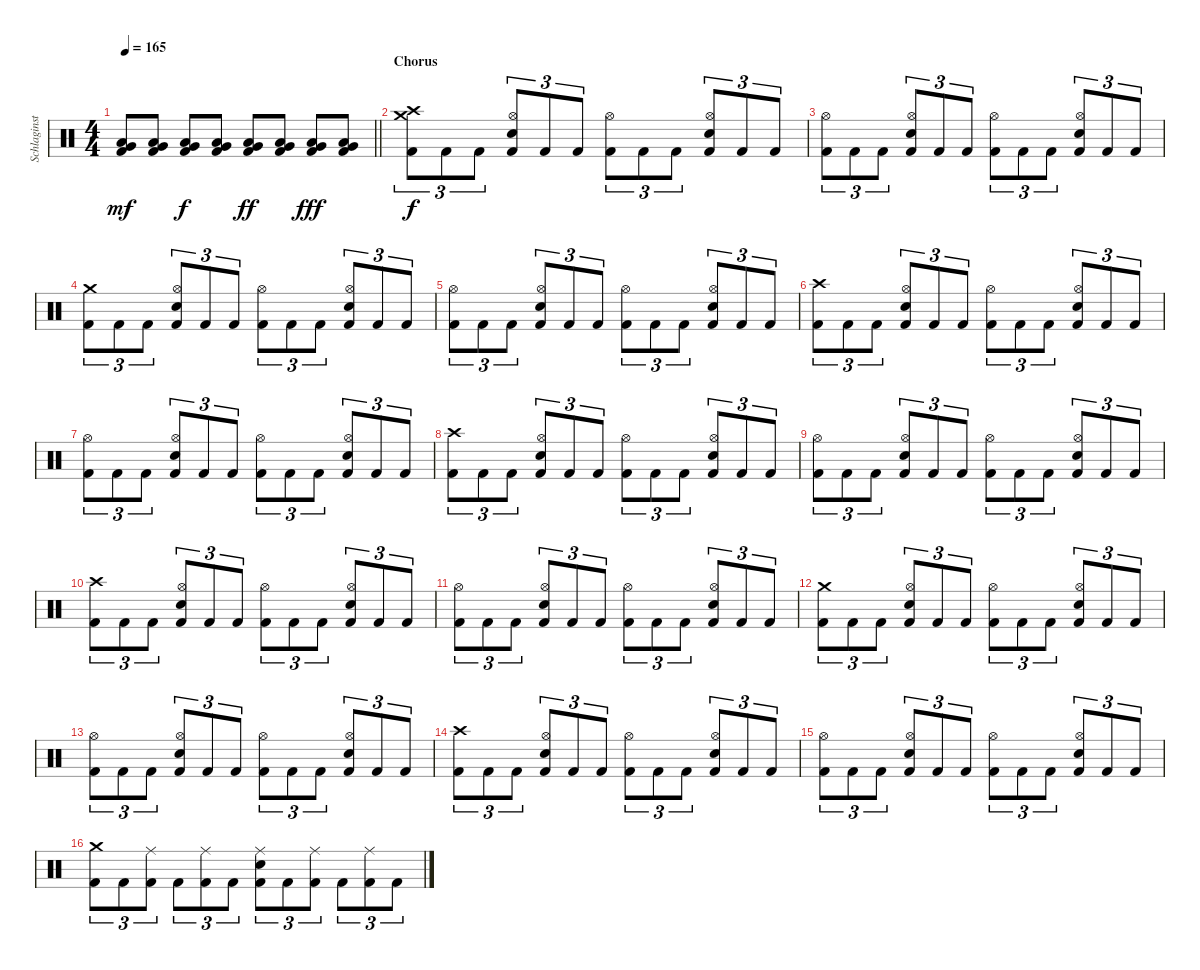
\track ("Schlaginstrumente - Auswahl" "Schlaginst") {instrument percussion}
\staff {score}
\articulation defaults
\ts (4 4)
\tempo 165
\clef neutral
\barLineRight lightlight
\ks c
("Low Floor Tom (hit)" "Very Low Tom (hit)" "Kick (hit) 2").8{dy mf} ("Low Floor Tom (hit)" "Very Low Tom (hit)" "Kick (hit) 2").8 ("Low Floor Tom (hit)" "Very Low Tom (hit)" "Kick (hit) 2").8{dy f} ("Low Floor Tom (hit)" "Very Low Tom (hit)" "Kick (hit) 2").8 ("Low Floor Tom (hit)" "Very Low Tom (hit)" "Kick (hit) 2").8{dy ff} ("Low Floor Tom (hit)" "Very Low Tom (hit)" "Kick (hit) 2").8 ("Low Floor Tom (hit)" "Very Low Tom (hit)" "Kick (hit) 2").8{dy fff} ("Low Floor Tom (hit)" "Very Low Tom (hit)" "Kick (hit) 2").8 |
\section ("" "Chorus")
("Crash high (hit)" "Crash medium (hit)" "Kick (hit) 2").8{tu (3 2) dy f} "Kick (hit) 2".8{tu (3 2)} "Kick (hit) 2".8{tu (3 2)} ("Hi-Hat (open)" "Electric Snare (hit)" "Kick (hit) 2").8{tu (3 2)} "Kick (hit) 2".8{tu (3 2)} "Kick (hit) 2".8{tu (3 2)} ("Hi-Hat (open)" "Kick (hit) 2").8{tu (3 2)} "Kick (hit) 2".8{tu (3 2)} "Kick (hit) 2".8{tu (3 2)} ("Hi-Hat (open)" "Electric Snare (hit)" "Kick (hit) 2").8{tu (3 2)} "Kick (hit) 2".8{tu (3 2)} "Kick (hit) 2".8{tu (3 2)} |
("Hi-Hat (open)" "Kick (hit) 2").8{tu (3 2)} "Kick (hit) 2".8{tu (3 2)} "Kick (hit) 2".8{tu (3 2)} ("Hi-Hat (open)" "Electric Snare (hit)" "Kick (hit) 2").8{tu (3 2)} "Kick (hit) 2".8{tu (3 2)} "Kick (hit) 2".8{tu (3 2)} ("Hi-Hat (open)" "Kick (hit) 2").8{tu (3 2)} "Kick (hit) 2".8{tu (3 2)} "Kick (hit) 2".8{tu (3 2)} ("Hi-Hat (open)" "Electric Snare (hit)" "Kick (hit) 2").8{tu (3 2)} "Kick (hit) 2".8{tu (3 2)} "Kick (hit) 2".8{tu (3 2)} |
("Crash medium (hit)" "Kick (hit) 2").8{tu (3 2)} "Kick (hit) 2".8{tu (3 2)} "Kick (hit) 2".8{tu (3 2)} ("Hi-Hat (open)" "Electric Snare (hit)" "Kick (hit) 2").8{tu (3 2)} "Kick (hit) 2".8{tu (3 2)} "Kick (hit) 2".8{tu (3 2)} ("Hi-Hat (open)" "Kick (hit) 2").8{tu (3 2)} "Kick (hit) 2".8{tu (3 2)} "Kick (hit) 2".8{tu (3 2)} ("Hi-Hat (open)" "Electric Snare (hit)" "Kick (hit) 2").8{tu (3 2)} "Kick (hit) 2".8{tu (3 2)} "Kick (hit) 2".8{tu (3 2)} |
("Hi-Hat (open)" "Kick (hit) 2").8{tu (3 2)} "Kick (hit) 2".8{tu (3 2)} "Kick (hit) 2".8{tu (3 2)} ("Hi-Hat (open)" "Electric Snare (hit)" "Kick (hit) 2").8{tu (3 2)} "Kick (hit) 2".8{tu (3 2)} "Kick (hit) 2".8{tu (3 2)} ("Hi-Hat (open)" "Kick (hit) 2").8{tu (3 2)} "Kick (hit) 2".8{tu (3 2)} "Kick (hit) 2".8{tu (3 2)} ("Hi-Hat (open)" "Electric Snare (hit)" "Kick (hit) 2").8{tu (3 2)} "Kick (hit) 2".8{tu (3 2)} "Kick (hit) 2".8{tu (3 2)} |
("Crash high (hit)" "Kick (hit) 2").8{tu (3 2)} "Kick (hit) 2".8{tu (3 2)} "Kick (hit) 2".8{tu (3 2)} ("Hi-Hat (open)" "Electric Snare (hit)" "Kick (hit) 2").8{tu (3 2)} "Kick (hit) 2".8{tu (3 2)} "Kick (hit) 2".8{tu (3 2)} ("Hi-Hat (open)" "Kick (hit) 2").8{tu (3 2)} "Kick (hit) 2".8{tu (3 2)} "Kick (hit) 2".8{tu (3 2)} ("Hi-Hat (open)" "Electric Snare (hit)" "Kick (hit) 2").8{tu (3 2)} "Kick (hit) 2".8{tu (3 2)} "Kick (hit) 2".8{tu (3 2)} |
("Hi-Hat (open)" "Kick (hit) 2").8{tu (3 2)} "Kick (hit) 2".8{tu (3 2)} "Kick (hit) 2".8{tu (3 2)} ("Hi-Hat (open)" "Electric Snare (hit)" "Kick (hit) 2").8{tu (3 2)} "Kick (hit) 2".8{tu (3 2)} "Kick (hit) 2".8{tu (3 2)} ("Hi-Hat (open)" "Kick (hit) 2").8{tu (3 2)} "Kick (hit) 2".8{tu (3 2)} "Kick (hit) 2".8{tu (3 2)} ("Hi-Hat (open)" "Electric Snare (hit)" "Kick (hit) 2").8{tu (3 2)} "Kick (hit) 2".8{tu (3 2)} "Kick (hit) 2".8{tu (3 2)} |
("Crash high (hit)" "Kick (hit) 2").8{tu (3 2)} "Kick (hit) 2".8{tu (3 2)} "Kick (hit) 2".8{tu (3 2)} ("Hi-Hat (open)" "Electric Snare (hit)" "Kick (hit) 2").8{tu (3 2)} "Kick (hit) 2".8{tu (3 2)} "Kick (hit) 2".8{tu (3 2)} ("Hi-Hat (open)" "Kick (hit) 2").8{tu (3 2)} "Kick (hit) 2".8{tu (3 2)} "Kick (hit) 2".8{tu (3 2)} ("Hi-Hat (open)" "Electric Snare (hit)" "Kick (hit) 2").8{tu (3 2)} "Kick (hit) 2".8{tu (3 2)} "Kick (hit) 2".8{tu (3 2)} |
("Hi-Hat (open)" "Kick (hit) 2").8{tu (3 2)} "Kick (hit) 2".8{tu (3 2)} "Kick (hit) 2".8{tu (3 2)} ("Hi-Hat (open)" "Electric Snare (hit)" "Kick (hit) 2").8{tu (3 2)} "Kick (hit) 2".8{tu (3 2)} "Kick (hit) 2".8{tu (3 2)} ("Hi-Hat (open)" "Kick (hit) 2").8{tu (3 2)} "Kick (hit) 2".8{tu (3 2)} "Kick (hit) 2".8{tu (3 2)} ("Hi-Hat (open)" "Electric Snare (hit)" "Kick (hit) 2").8{tu (3 2)} "Kick (hit) 2".8{tu (3 2)} "Kick (hit) 2".8{tu (3 2)} |
("Crash high (hit)" "Kick (hit) 2").8{tu (3 2)} "Kick (hit) 2".8{tu (3 2)} "Kick (hit) 2".8{tu (3 2)} ("Hi-Hat (open)" "Electric Snare (hit)" "Kick (hit) 2").8{tu (3 2)} "Kick (hit) 2".8{tu (3 2)} "Kick (hit) 2".8{tu (3 2)} ("Hi-Hat (open)" "Kick (hit) 2").8{tu (3 2)} "Kick (hit) 2".8{tu (3 2)} "Kick (hit) 2".8{tu (3 2)} ("Hi-Hat (open)" "Electric Snare (hit)" "Kick (hit) 2").8{tu (3 2)} "Kick (hit) 2".8{tu (3 2)} "Kick (hit) 2".8{tu (3 2)} |
("Hi-Hat (open)" "Kick (hit) 2").8{tu (3 2)} "Kick (hit) 2".8{tu (3 2)} "Kick (hit) 2".8{tu (3 2)} ("Hi-Hat (open)" "Electric Snare (hit)" "Kick (hit) 2").8{tu (3 2)} "Kick (hit) 2".8{tu (3 2)} "Kick (hit) 2".8{tu (3 2)} ("Hi-Hat (open)" "Kick (hit) 2").8{tu (3 2)} "Kick (hit) 2".8{tu (3 2)} "Kick (hit) 2".8{tu (3 2)} ("Hi-Hat (open)" "Electric Snare (hit)" "Kick (hit) 2").8{tu (3 2)} "Kick (hit) 2".8{tu (3 2)} "Kick (hit) 2".8{tu (3 2)} |
("Crash medium (hit)" "Kick (hit) 2").8{tu (3 2)} "Kick (hit) 2".8{tu (3 2)} "Kick (hit) 2".8{tu (3 2)} ("Hi-Hat (open)" "Electric Snare (hit)" "Kick (hit) 2").8{tu (3 2)} "Kick (hit) 2".8{tu (3 2)} "Kick (hit) 2".8{tu (3 2)} ("Hi-Hat (open)" "Kick (hit) 2").8{tu (3 2)} "Kick (hit) 2".8{tu (3 2)} "Kick (hit) 2".8{tu (3 2)} ("Hi-Hat (open)" "Electric Snare (hit)" "Kick (hit) 2").8{tu (3 2)} "Kick (hit) 2".8{tu (3 2)} "Kick (hit) 2".8{tu (3 2)} |
("Hi-Hat (open)" "Kick (hit) 2").8{tu (3 2)} "Kick (hit) 2".8{tu (3 2)} "Kick (hit) 2".8{tu (3 2)} ("Hi-Hat (open)" "Electric Snare (hit)" "Kick (hit) 2").8{tu (3 2)} "Kick (hit) 2".8{tu (3 2)} "Kick (hit) 2".8{tu (3 2)} ("Hi-Hat (open)" "Kick (hit) 2").8{tu (3 2)} "Kick (hit) 2".8{tu (3 2)} "Kick (hit) 2".8{tu (3 2)} ("Hi-Hat (open)" "Electric Snare (hit)" "Kick (hit) 2").8{tu (3 2)} "Kick (hit) 2".8{tu (3 2)} "Kick (hit) 2".8{tu (3 2)} |
("Crash high (hit)" "Kick (hit) 2").8{tu (3 2)} "Kick (hit) 2".8{tu (3 2)} "Kick (hit) 2".8{tu (3 2)} ("Hi-Hat (open)" "Electric Snare (hit)" "Kick (hit) 2").8{tu (3 2)} "Kick (hit) 2".8{tu (3 2)} "Kick (hit) 2".8{tu (3 2)} ("Hi-Hat (open)" "Kick (hit) 2").8{tu (3 2)} "Kick (hit) 2".8{tu (3 2)} "Kick (hit) 2".8{tu (3 2)} ("Hi-Hat (open)" "Electric Snare (hit)" "Kick (hit) 2").8{tu (3 2)} "Kick (hit) 2".8{tu (3 2)} "Kick (hit) 2".8{tu (3 2)} |
("Hi-Hat (open)" "Kick (hit) 2").8{tu (3 2)} "Kick (hit) 2".8{tu (3 2)} "Kick (hit) 2".8{tu (3 2)} ("Hi-Hat (open)" "Electric Snare (hit)" "Kick (hit) 2").8{tu (3 2)} "Kick (hit) 2".8{tu (3 2)} "Kick (hit) 2".8{tu (3 2)} ("Hi-Hat (open)" "Kick (hit) 2").8{tu (3 2)} "Kick (hit) 2".8{tu (3 2)} "Kick (hit) 2".8{tu (3 2)} ("Hi-Hat (open)" "Electric Snare (hit)" "Kick (hit) 2").8{tu (3 2)} "Kick (hit) 2".8{tu (3 2)} "Kick (hit) 2".8{tu (3 2)} |
("Crash medium (hit)" "Kick (hit) 2").8{tu (3 2)} "Kick (hit) 2".8{tu (3 2)} ("Ride (middle)" "Kick (hit) 2").8{tu (3 2)} "Kick (hit) 2".8{tu (3 2)} ("Ride (middle)" "Kick (hit) 2").8{tu (3 2)} "Kick (hit) 2".8{tu (3 2)} ("Ride (middle)" "Electric Snare (hit)" "Kick (hit) 2").8{tu (3 2)} "Kick (hit) 2".8{tu (3 2)} ("Ride (middle)" "Kick (hit) 2").8{tu (3 2)} "Kick (hit) 2".8{tu (3 2)} ("Ride (middle)" "Kick (hit) 2").8{tu (3 2)} "Kick (hit) 2".8{tu (3 2)}
